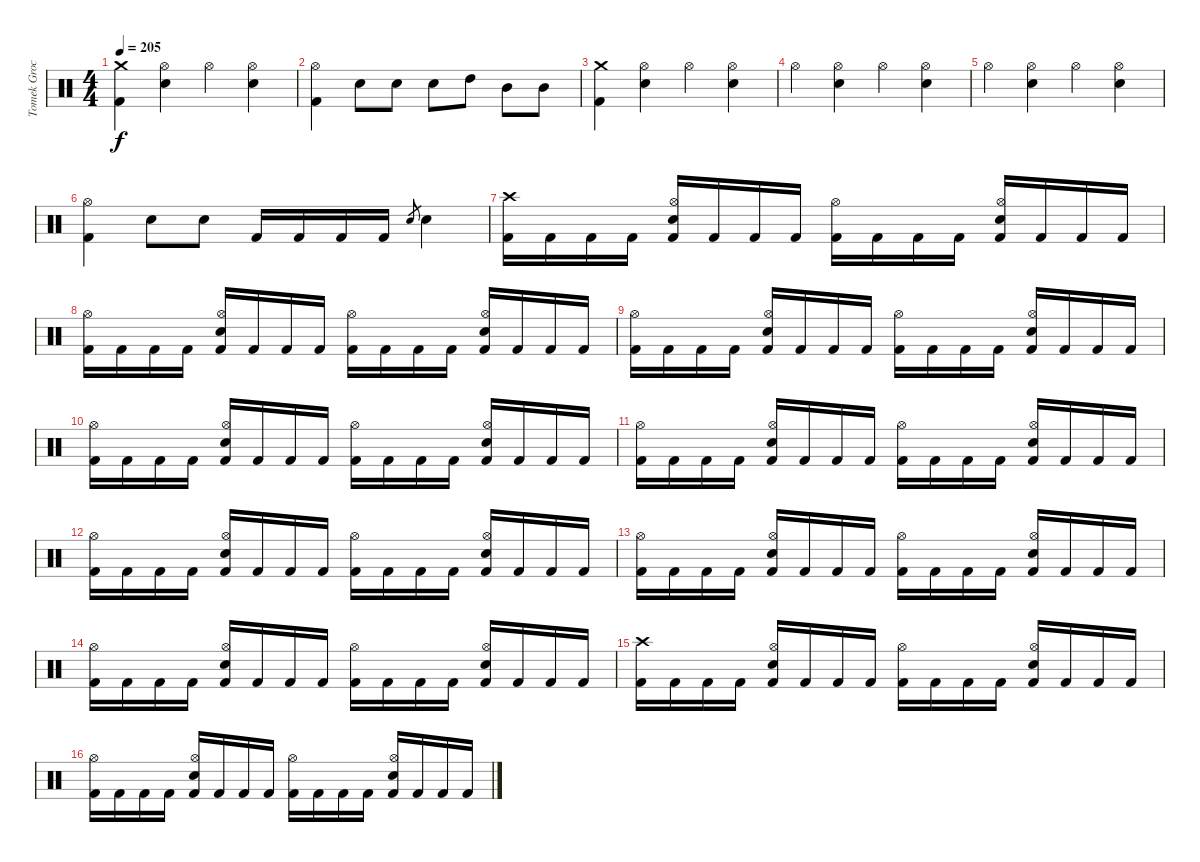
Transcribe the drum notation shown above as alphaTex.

\track ("Tomek Grochowski" "Tomek Groc") {instrument percussion}
\staff {score}
\articulation defaults
\ts (4 4)
\tempo 205
\clef neutral
\ks c
("Crash medium (hit)" "Kick (hit) 2").4{dy f} ("Hi-Hat (open)" "Electric Snare (hit)").4 "Hi-Hat (open)".4 ("Hi-Hat (open)" "Electric Snare (hit)").4 |
("Hi-Hat (open)" "Kick (hit) 2").4 "Electric Snare (hit)".8 "Electric Snare (hit)".8 "Electric Snare (hit)".8 "High Tom (hit)".8 "Mid Tom (hit)".8 "Mid Tom (hit)".8 |
("Crash medium (hit)" "Kick (hit) 2").4 ("Hi-Hat (open)" "Electric Snare (hit)").4 "Hi-Hat (open)".4 ("Hi-Hat (open)" "Electric Snare (hit)").4 |
"Hi-Hat (open)".4 ("Hi-Hat (open)" "Electric Snare (hit)").4 "Hi-Hat (open)".4 ("Hi-Hat (open)" "Electric Snare (hit)").4 |
"Hi-Hat (open)".4 ("Hi-Hat (open)" "Electric Snare (hit)").4 "Hi-Hat (open)".4 ("Hi-Hat (open)" "Electric Snare (hit)").4 |
("Hi-Hat (open)" "Kick (hit) 2").4 "Electric Snare (hit)".8 "Electric Snare (hit)".8 "Kick (hit) 2".16 "Kick (hit) 2".16 "Kick (hit) 2".16 "Kick (hit) 2".16 "Electric Snare (hit)".8{gr} "Electric Snare (hit)".4 |
("Crash high (hit)" "Kick (hit) 2").16 "Kick (hit) 2".16 "Kick (hit) 2".16 "Kick (hit) 2".16 ("Hi-Hat (open)" "Electric Snare (hit)" "Kick (hit) 2").16 "Kick (hit) 2".16 "Kick (hit) 2".16 "Kick (hit) 2".16 ("Hi-Hat (open)" "Kick (hit) 2").16 "Kick (hit) 2".16 "Kick (hit) 2".16 "Kick (hit) 2".16 ("Hi-Hat (open)" "Electric Snare (hit)" "Kick (hit) 2").16 "Kick (hit) 2".16 "Kick (hit) 2".16 "Kick (hit) 2".16 |
("Hi-Hat (open)" "Kick (hit) 2").16 "Kick (hit) 2".16 "Kick (hit) 2".16 "Kick (hit) 2".16 ("Hi-Hat (open)" "Electric Snare (hit)" "Kick (hit) 2").16 "Kick (hit) 2".16 "Kick (hit) 2".16 "Kick (hit) 2".16 ("Hi-Hat (open)" "Kick (hit) 2").16 "Kick (hit) 2".16 "Kick (hit) 2".16 "Kick (hit) 2".16 ("Hi-Hat (open)" "Electric Snare (hit)" "Kick (hit) 2").16 "Kick (hit) 2".16 "Kick (hit) 2".16 "Kick (hit) 2".16 |
("Hi-Hat (open)" "Kick (hit) 2").16 "Kick (hit) 2".16 "Kick (hit) 2".16 "Kick (hit) 2".16 ("Hi-Hat (open)" "Electric Snare (hit)" "Kick (hit) 2").16 "Kick (hit) 2".16 "Kick (hit) 2".16 "Kick (hit) 2".16 ("Hi-Hat (open)" "Kick (hit) 2").16 "Kick (hit) 2".16 "Kick (hit) 2".16 "Kick (hit) 2".16 ("Hi-Hat (open)" "Electric Snare (hit)" "Kick (hit) 2").16 "Kick (hit) 2".16 "Kick (hit) 2".16 "Kick (hit) 2".16 |
("Hi-Hat (open)" "Kick (hit) 2").16 "Kick (hit) 2".16 "Kick (hit) 2".16 "Kick (hit) 2".16 ("Hi-Hat (open)" "Electric Snare (hit)" "Kick (hit) 2").16 "Kick (hit) 2".16 "Kick (hit) 2".16 "Kick (hit) 2".16 ("Hi-Hat (open)" "Kick (hit) 2").16 "Kick (hit) 2".16 "Kick (hit) 2".16 "Kick (hit) 2".16 ("Hi-Hat (open)" "Electric Snare (hit)" "Kick (hit) 2").16 "Kick (hit) 2".16 "Kick (hit) 2".16 "Kick (hit) 2".16 |
("Hi-Hat (open)" "Kick (hit) 2").16 "Kick (hit) 2".16 "Kick (hit) 2".16 "Kick (hit) 2".16 ("Hi-Hat (open)" "Electric Snare (hit)" "Kick (hit) 2").16 "Kick (hit) 2".16 "Kick (hit) 2".16 "Kick (hit) 2".16 ("Hi-Hat (open)" "Kick (hit) 2").16 "Kick (hit) 2".16 "Kick (hit) 2".16 "Kick (hit) 2".16 ("Hi-Hat (open)" "Electric Snare (hit)" "Kick (hit) 2").16 "Kick (hit) 2".16 "Kick (hit) 2".16 "Kick (hit) 2".16 |
("Hi-Hat (open)" "Kick (hit) 2").16 "Kick (hit) 2".16 "Kick (hit) 2".16 "Kick (hit) 2".16 ("Hi-Hat (open)" "Electric Snare (hit)" "Kick (hit) 2").16 "Kick (hit) 2".16 "Kick (hit) 2".16 "Kick (hit) 2".16 ("Hi-Hat (open)" "Kick (hit) 2").16 "Kick (hit) 2".16 "Kick (hit) 2".16 "Kick (hit) 2".16 ("Hi-Hat (open)" "Electric Snare (hit)" "Kick (hit) 2").16 "Kick (hit) 2".16 "Kick (hit) 2".16 "Kick (hit) 2".16 |
("Hi-Hat (open)" "Kick (hit) 2").16 "Kick (hit) 2".16 "Kick (hit) 2".16 "Kick (hit) 2".16 ("Hi-Hat (open)" "Electric Snare (hit)" "Kick (hit) 2").16 "Kick (hit) 2".16 "Kick (hit) 2".16 "Kick (hit) 2".16 ("Hi-Hat (open)" "Kick (hit) 2").16 "Kick (hit) 2".16 "Kick (hit) 2".16 "Kick (hit) 2".16 ("Hi-Hat (open)" "Electric Snare (hit)" "Kick (hit) 2").16 "Kick (hit) 2".16 "Kick (hit) 2".16 "Kick (hit) 2".16 |
("Hi-Hat (open)" "Kick (hit) 2").16 "Kick (hit) 2".16 "Kick (hit) 2".16 "Kick (hit) 2".16 ("Hi-Hat (open)" "Electric Snare (hit)" "Kick (hit) 2").16 "Kick (hit) 2".16 "Kick (hit) 2".16 "Kick (hit) 2".16 ("Hi-Hat (open)" "Kick (hit) 2").16 "Kick (hit) 2".16 "Kick (hit) 2".16 "Kick (hit) 2".16 ("Hi-Hat (open)" "Electric Snare (hit)" "Kick (hit) 2").16 "Kick (hit) 2".16 "Kick (hit) 2".16 "Kick (hit) 2".16 |
("Crash high (hit)" "Kick (hit) 2").16 "Kick (hit) 2".16 "Kick (hit) 2".16 "Kick (hit) 2".16 ("Hi-Hat (open)" "Electric Snare (hit)" "Kick (hit) 2").16 "Kick (hit) 2".16 "Kick (hit) 2".16 "Kick (hit) 2".16 ("Hi-Hat (open)" "Kick (hit) 2").16 "Kick (hit) 2".16 "Kick (hit) 2".16 "Kick (hit) 2".16 ("Hi-Hat (open)" "Electric Snare (hit)" "Kick (hit) 2").16 "Kick (hit) 2".16 "Kick (hit) 2".16 "Kick (hit) 2".16 |
("Hi-Hat (open)" "Kick (hit) 2").16 "Kick (hit) 2".16 "Kick (hit) 2".16 "Kick (hit) 2".16 ("Hi-Hat (open)" "Electric Snare (hit)" "Kick (hit) 2").16 "Kick (hit) 2".16 "Kick (hit) 2".16 "Kick (hit) 2".16 ("Hi-Hat (open)" "Kick (hit) 2").16 "Kick (hit) 2".16 "Kick (hit) 2".16 "Kick (hit) 2".16 ("Hi-Hat (open)" "Electric Snare (hit)" "Kick (hit) 2").16 "Kick (hit) 2".16 "Kick (hit) 2".16 "Kick (hit) 2".16
